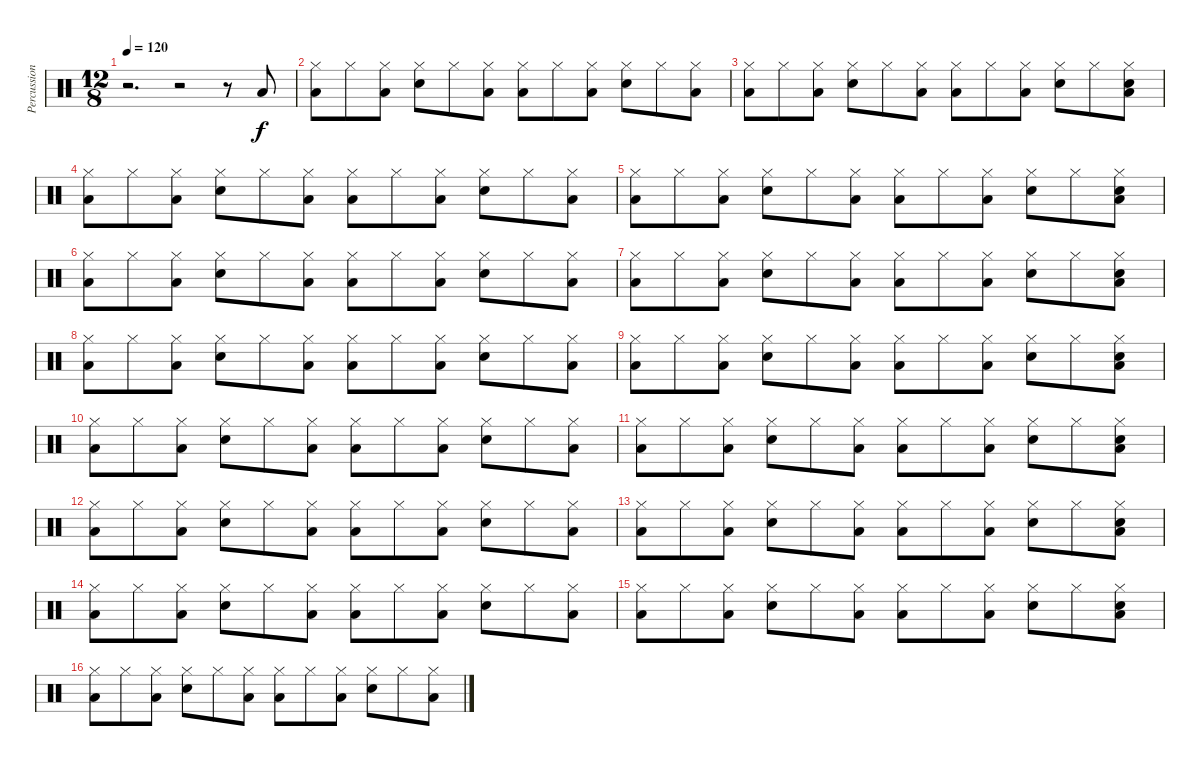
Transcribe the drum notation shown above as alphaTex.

\track ("Percussion" "Percussion") {instrument percussion}
\staff {score}
\articulation defaults
\ts (12 8)
\tempo 120
\clef neutral
\ks c
r.2{d dy f} r.2 r.8 "Low Tom (hit)".8 |
("Low Tom (hit)" "Hi-Hat (closed)").8 "Hi-Hat (closed)".8 ("Low Tom (hit)" "Hi-Hat (closed)").8 ("Electric Snare (hit)" "Hi-Hat (closed)").8 "Hi-Hat (closed)".8 ("Low Tom (hit)" "Hi-Hat (closed)").8 ("Low Tom (hit)" "Hi-Hat (closed)").8 "Hi-Hat (closed)".8 ("Low Tom (hit)" "Hi-Hat (closed)").8 ("Electric Snare (hit)" "Hi-Hat (closed)").8 "Hi-Hat (closed)".8 ("Low Tom (hit)" "Hi-Hat (closed)").8 |
("Low Tom (hit)" "Hi-Hat (closed)").8 "Hi-Hat (closed)".8 ("Low Tom (hit)" "Hi-Hat (closed)").8 ("Electric Snare (hit)" "Hi-Hat (closed)").8 "Hi-Hat (closed)".8 ("Low Tom (hit)" "Hi-Hat (closed)").8 ("Low Tom (hit)" "Hi-Hat (closed)").8 "Hi-Hat (closed)".8 ("Low Tom (hit)" "Hi-Hat (closed)").8 ("Electric Snare (hit)" "Hi-Hat (closed)").8 "Hi-Hat (closed)".8 ("Electric Snare (hit)" "Low Tom (hit)" "Hi-Hat (closed)").8 |
("Low Tom (hit)" "Hi-Hat (closed)").8 "Hi-Hat (closed)".8 ("Low Tom (hit)" "Hi-Hat (closed)").8 ("Electric Snare (hit)" "Hi-Hat (closed)").8 "Hi-Hat (closed)".8 ("Low Tom (hit)" "Hi-Hat (closed)").8 ("Low Tom (hit)" "Hi-Hat (closed)").8 "Hi-Hat (closed)".8 ("Low Tom (hit)" "Hi-Hat (closed)").8 ("Electric Snare (hit)" "Hi-Hat (closed)").8 "Hi-Hat (closed)".8 ("Low Tom (hit)" "Hi-Hat (closed)").8 |
("Low Tom (hit)" "Hi-Hat (closed)").8 "Hi-Hat (closed)".8 ("Low Tom (hit)" "Hi-Hat (closed)").8 ("Electric Snare (hit)" "Hi-Hat (closed)").8 "Hi-Hat (closed)".8 ("Low Tom (hit)" "Hi-Hat (closed)").8 ("Low Tom (hit)" "Hi-Hat (closed)").8 "Hi-Hat (closed)".8 ("Low Tom (hit)" "Hi-Hat (closed)").8 ("Electric Snare (hit)" "Hi-Hat (closed)").8 "Hi-Hat (closed)".8 ("Electric Snare (hit)" "Low Tom (hit)" "Hi-Hat (closed)").8 |
("Low Tom (hit)" "Hi-Hat (closed)").8 "Hi-Hat (closed)".8 ("Low Tom (hit)" "Hi-Hat (closed)").8 ("Electric Snare (hit)" "Hi-Hat (closed)").8 "Hi-Hat (closed)".8 ("Low Tom (hit)" "Hi-Hat (closed)").8 ("Low Tom (hit)" "Hi-Hat (closed)").8 "Hi-Hat (closed)".8 ("Low Tom (hit)" "Hi-Hat (closed)").8 ("Electric Snare (hit)" "Hi-Hat (closed)").8 "Hi-Hat (closed)".8 ("Low Tom (hit)" "Hi-Hat (closed)").8 |
("Low Tom (hit)" "Hi-Hat (closed)").8 "Hi-Hat (closed)".8 ("Low Tom (hit)" "Hi-Hat (closed)").8 ("Electric Snare (hit)" "Hi-Hat (closed)").8 "Hi-Hat (closed)".8 ("Low Tom (hit)" "Hi-Hat (closed)").8 ("Low Tom (hit)" "Hi-Hat (closed)").8 "Hi-Hat (closed)".8 ("Low Tom (hit)" "Hi-Hat (closed)").8 ("Electric Snare (hit)" "Hi-Hat (closed)").8 "Hi-Hat (closed)".8 ("Electric Snare (hit)" "Low Tom (hit)" "Hi-Hat (closed)").8 |
("Low Tom (hit)" "Hi-Hat (closed)").8 "Hi-Hat (closed)".8 ("Low Tom (hit)" "Hi-Hat (closed)").8 ("Electric Snare (hit)" "Hi-Hat (closed)").8 "Hi-Hat (closed)".8 ("Low Tom (hit)" "Hi-Hat (closed)").8 ("Low Tom (hit)" "Hi-Hat (closed)").8 "Hi-Hat (closed)".8 ("Low Tom (hit)" "Hi-Hat (closed)").8 ("Electric Snare (hit)" "Hi-Hat (closed)").8 "Hi-Hat (closed)".8 ("Low Tom (hit)" "Hi-Hat (closed)").8 |
("Low Tom (hit)" "Hi-Hat (closed)").8 "Hi-Hat (closed)".8 ("Low Tom (hit)" "Hi-Hat (closed)").8 ("Electric Snare (hit)" "Hi-Hat (closed)").8 "Hi-Hat (closed)".8 ("Low Tom (hit)" "Hi-Hat (closed)").8 ("Low Tom (hit)" "Hi-Hat (closed)").8 "Hi-Hat (closed)".8 ("Low Tom (hit)" "Hi-Hat (closed)").8 ("Electric Snare (hit)" "Hi-Hat (closed)").8 "Hi-Hat (closed)".8 ("Electric Snare (hit)" "Low Tom (hit)" "Hi-Hat (closed)").8 |
("Low Tom (hit)" "Hi-Hat (closed)").8 "Hi-Hat (closed)".8 ("Low Tom (hit)" "Hi-Hat (closed)").8 ("Electric Snare (hit)" "Hi-Hat (closed)").8 "Hi-Hat (closed)".8 ("Low Tom (hit)" "Hi-Hat (closed)").8 ("Low Tom (hit)" "Hi-Hat (closed)").8 "Hi-Hat (closed)".8 ("Low Tom (hit)" "Hi-Hat (closed)").8 ("Electric Snare (hit)" "Hi-Hat (closed)").8 "Hi-Hat (closed)".8 ("Low Tom (hit)" "Hi-Hat (closed)").8 |
("Low Tom (hit)" "Hi-Hat (closed)").8 "Hi-Hat (closed)".8 ("Low Tom (hit)" "Hi-Hat (closed)").8 ("Electric Snare (hit)" "Hi-Hat (closed)").8 "Hi-Hat (closed)".8 ("Low Tom (hit)" "Hi-Hat (closed)").8 ("Low Tom (hit)" "Hi-Hat (closed)").8 "Hi-Hat (closed)".8 ("Low Tom (hit)" "Hi-Hat (closed)").8 ("Electric Snare (hit)" "Hi-Hat (closed)").8 "Hi-Hat (closed)".8 ("Electric Snare (hit)" "Low Tom (hit)" "Hi-Hat (closed)").8 |
("Low Tom (hit)" "Hi-Hat (closed)").8 "Hi-Hat (closed)".8 ("Low Tom (hit)" "Hi-Hat (closed)").8 ("Electric Snare (hit)" "Hi-Hat (closed)").8 "Hi-Hat (closed)".8 ("Low Tom (hit)" "Hi-Hat (closed)").8 ("Low Tom (hit)" "Hi-Hat (closed)").8 "Hi-Hat (closed)".8 ("Low Tom (hit)" "Hi-Hat (closed)").8 ("Electric Snare (hit)" "Hi-Hat (closed)").8 "Hi-Hat (closed)".8 ("Low Tom (hit)" "Hi-Hat (closed)").8 |
("Low Tom (hit)" "Hi-Hat (closed)").8 "Hi-Hat (closed)".8 ("Low Tom (hit)" "Hi-Hat (closed)").8 ("Electric Snare (hit)" "Hi-Hat (closed)").8 "Hi-Hat (closed)".8 ("Low Tom (hit)" "Hi-Hat (closed)").8 ("Low Tom (hit)" "Hi-Hat (closed)").8 "Hi-Hat (closed)".8 ("Low Tom (hit)" "Hi-Hat (closed)").8 ("Electric Snare (hit)" "Hi-Hat (closed)").8 "Hi-Hat (closed)".8 ("Electric Snare (hit)" "Low Tom (hit)" "Hi-Hat (closed)").8 |
("Low Tom (hit)" "Hi-Hat (closed)").8 "Hi-Hat (closed)".8 ("Low Tom (hit)" "Hi-Hat (closed)").8 ("Electric Snare (hit)" "Hi-Hat (closed)").8 "Hi-Hat (closed)".8 ("Low Tom (hit)" "Hi-Hat (closed)").8 ("Low Tom (hit)" "Hi-Hat (closed)").8 "Hi-Hat (closed)".8 ("Low Tom (hit)" "Hi-Hat (closed)").8 ("Electric Snare (hit)" "Hi-Hat (closed)").8 "Hi-Hat (closed)".8 ("Low Tom (hit)" "Hi-Hat (closed)").8 |
("Low Tom (hit)" "Hi-Hat (closed)").8 "Hi-Hat (closed)".8 ("Low Tom (hit)" "Hi-Hat (closed)").8 ("Electric Snare (hit)" "Hi-Hat (closed)").8 "Hi-Hat (closed)".8 ("Low Tom (hit)" "Hi-Hat (closed)").8 ("Low Tom (hit)" "Hi-Hat (closed)").8 "Hi-Hat (closed)".8 ("Low Tom (hit)" "Hi-Hat (closed)").8 ("Electric Snare (hit)" "Hi-Hat (closed)").8 "Hi-Hat (closed)".8 ("Electric Snare (hit)" "Low Tom (hit)" "Hi-Hat (closed)").8 |
("Low Tom (hit)" "Hi-Hat (closed)").8 "Hi-Hat (closed)".8 ("Low Tom (hit)" "Hi-Hat (closed)").8 ("Electric Snare (hit)" "Hi-Hat (closed)").8 "Hi-Hat (closed)".8 ("Low Tom (hit)" "Hi-Hat (closed)").8 ("Low Tom (hit)" "Hi-Hat (closed)").8 "Hi-Hat (closed)".8 ("Low Tom (hit)" "Hi-Hat (closed)").8 ("Electric Snare (hit)" "Hi-Hat (closed)").8 "Hi-Hat (closed)".8 ("Low Tom (hit)" "Hi-Hat (closed)").8
